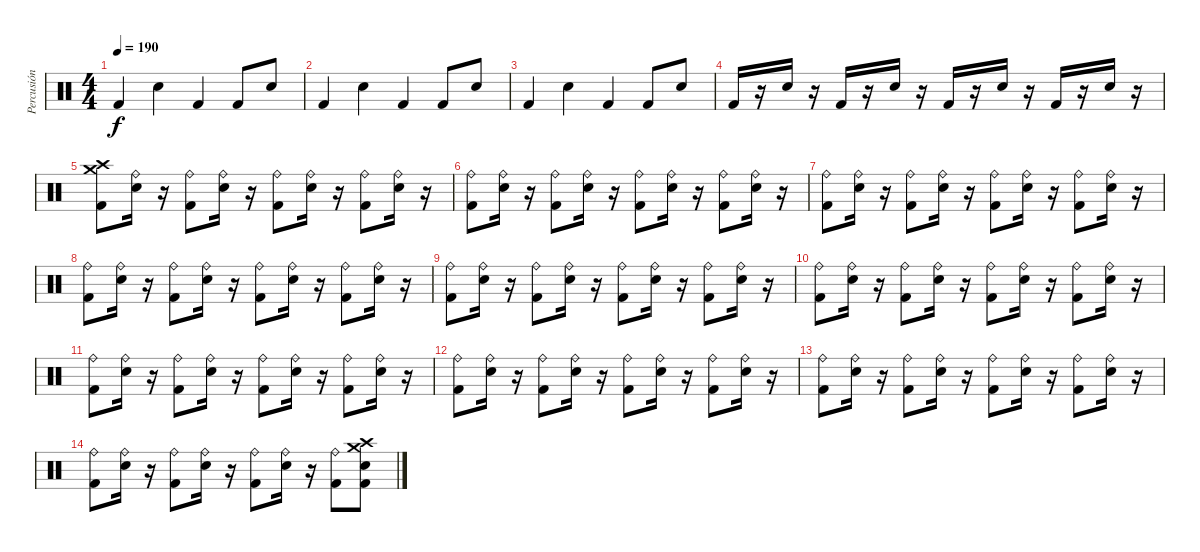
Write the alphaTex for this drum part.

\track ("Percusión" "Percusión") {instrument percussion}
\staff {score}
\articulation defaults
\ts (4 4)
\tempo 190
\clef neutral
\ks c "Kick (hit) 2".4{dy f} "Snare (hit) 2".4 "Kick (hit) 2".4 "Kick (hit) 2".8 "Snare (hit) 2".8
|
"Kick (hit) 2".4 "Snare (hit) 2".4 "Kick (hit) 2".4 "Kick (hit) 2".8 "Snare (hit) 2".8 |
"Kick (hit) 2".4 "Snare (hit) 2".4 "Kick (hit) 2".4 "Kick (hit) 2".8 "Snare (hit) 2".8 |
"Kick (hit) 2".16 r.16 "Snare (hit) 2".16 r.16 "Kick (hit) 2".16 r.16 "Snare (hit) 2".16 r.16 "Kick (hit) 2".16 r.16 "Snare (hit) 2".16 r.16 "Kick (hit) 2".16 r.16 "Snare (hit) 2".16 r.16 |
("Kick (hit) 2" "Crash medium (hit)" "Crash high (hit)").8 ("Snare (hit) 2" "Ride (bell)").16 r.16 ("Kick (hit) 2" "Ride (bell)").8 ("Snare (hit) 2" "Ride (bell)").16 r.16 ("Kick (hit) 2" "Ride (bell)").8 ("Snare (hit) 2" "Ride (bell)").16 r.16 ("Kick (hit) 2" "Ride (bell)").8 ("Snare (hit) 2" "Ride (bell)").16 r.16 |
("Kick (hit) 2" "Ride (bell)").8 ("Snare (hit) 2" "Ride (bell)").16 r.16 ("Kick (hit) 2" "Ride (bell)").8 ("Snare (hit) 2" "Ride (bell)").16 r.16 ("Kick (hit) 2" "Ride (bell)").8 ("Snare (hit) 2" "Ride (bell)").16 r.16 ("Kick (hit) 2" "Ride (bell)").8 ("Snare (hit) 2" "Ride (bell)").16 r.16 |
("Kick (hit) 2" "Ride (bell)").8 ("Snare (hit) 2" "Ride (bell)").16 r.16 ("Kick (hit) 2" "Ride (bell)").8 ("Snare (hit) 2" "Ride (bell)").16 r.16 ("Kick (hit) 2" "Ride (bell)").8 ("Snare (hit) 2" "Ride (bell)").16 r.16 ("Kick (hit) 2" "Ride (bell)").8 ("Snare (hit) 2" "Ride (bell)").16 r.16 |
("Kick (hit) 2" "Ride (bell)").8 ("Snare (hit) 2" "Ride (bell)").16 r.16 ("Kick (hit) 2" "Ride (bell)").8 ("Snare (hit) 2" "Ride (bell)").16 r.16 ("Kick (hit) 2" "Ride (bell)").8 ("Snare (hit) 2" "Ride (bell)").16 r.16 ("Kick (hit) 2" "Ride (bell)").8 ("Snare (hit) 2" "Ride (bell)").16 r.16 |
("Kick (hit) 2" "Ride (bell)").8 ("Snare (hit) 2" "Ride (bell)").16 r.16 ("Kick (hit) 2" "Ride (bell)").8 ("Snare (hit) 2" "Ride (bell)").16 r.16 ("Kick (hit) 2" "Ride (bell)").8 ("Snare (hit) 2" "Ride (bell)").16 r.16 ("Kick (hit) 2" "Ride (bell)").8 ("Snare (hit) 2" "Ride (bell)").16 r.16 |
("Kick (hit) 2" "Ride (bell)").8 ("Snare (hit) 2" "Ride (bell)").16 r.16 ("Kick (hit) 2" "Ride (bell)").8 ("Snare (hit) 2" "Ride (bell)").16 r.16 ("Kick (hit) 2" "Ride (bell)").8 ("Snare (hit) 2" "Ride (bell)").16 r.16 ("Kick (hit) 2" "Ride (bell)").8 ("Snare (hit) 2" "Ride (bell)").16 r.16 |
("Kick (hit) 2" "Ride (bell)").8 ("Snare (hit) 2" "Ride (bell)").16 r.16 ("Kick (hit) 2" "Ride (bell)").8 ("Snare (hit) 2" "Ride (bell)").16 r.16 ("Kick (hit) 2" "Ride (bell)").8 ("Snare (hit) 2" "Ride (bell)").16 r.16 ("Kick (hit) 2" "Ride (bell)").8 ("Snare (hit) 2" "Ride (bell)").16 r.16 |
("Kick (hit) 2" "Ride (bell)").8 ("Snare (hit) 2" "Ride (bell)").16 r.16 ("Kick (hit) 2" "Ride (bell)").8 ("Snare (hit) 2" "Ride (bell)").16 r.16 ("Kick (hit) 2" "Ride (bell)").8 ("Snare (hit) 2" "Ride (bell)").16 r.16 ("Kick (hit) 2" "Ride (bell)").8 ("Snare (hit) 2" "Ride (bell)").16 r.16 |
("Kick (hit) 2" "Ride (bell)").8 ("Snare (hit) 2" "Ride (bell)").16 r.16 ("Kick (hit) 2" "Ride (bell)").8 ("Snare (hit) 2" "Ride (bell)").16 r.16 ("Kick (hit) 2" "Ride (bell)").8 ("Snare (hit) 2" "Ride (bell)").16 r.16 ("Kick (hit) 2" "Ride (bell)").8 ("Snare (hit) 2" "Ride (bell)").16 r.16 |
("Kick (hit) 2" "Ride (bell)").8 ("Snare (hit) 2" "Ride (bell)").16 r.16 ("Kick (hit) 2" "Ride (bell)").8 ("Snare (hit) 2" "Ride (bell)").16 r.16 ("Kick (hit) 2" "Ride (bell)").8 ("Snare (hit) 2" "Ride (bell)").16 r.16 ("Kick (hit) 2" "Ride (bell)").8 ("Crash medium (hit)" "Snare (hit) 2" "Crash high (hit)" "Kick (hit) 2").8
